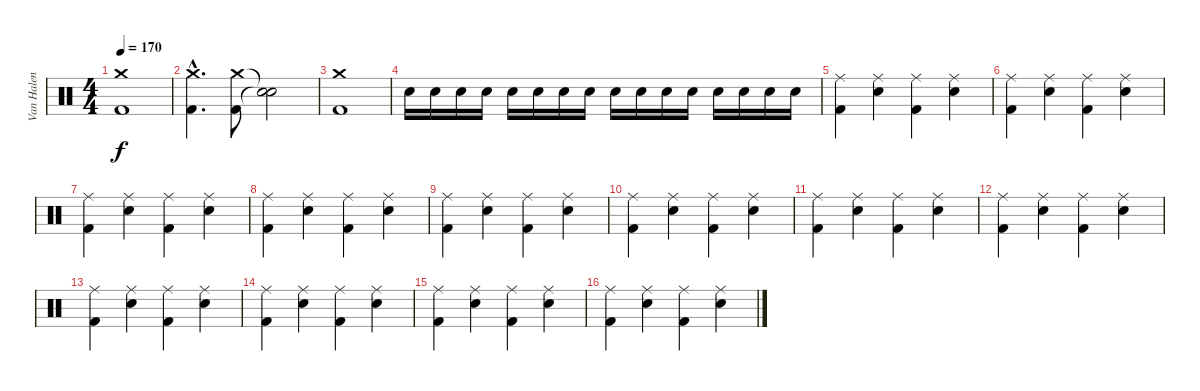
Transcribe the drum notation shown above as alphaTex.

\track ("Van Halen" "Van Halen") {instrument percussion}
\staff {score}
\articulation defaults
\ts (4 4)
\tempo 170
\clef neutral
\ks c
("Kick (hit) 2" "Crash medium (hit)").1{dy f} |
("Kick (hit) 2"{hac} "Crash medium (hit)"{hac}).4{d} ("Kick (hit) 2" "Crash medium (hit)").8 ("Snare (hit)"{t} "Snare (hit)"{t}).2 |
("Kick (hit) 2" "Crash medium (hit)").1 |
"Snare (hit) 2".16 "Snare (hit) 2".16 "Snare (hit) 2".16 "Snare (hit) 2".16 "Snare (hit) 2".16 "Snare (hit) 2".16 "Snare (hit) 2".16 "Snare (hit) 2".16 "Snare (hit) 2".16 "Snare (hit) 2".16 "Snare (hit) 2".16 "Snare (hit) 2".16 "Snare (hit) 2".16 "Snare (hit) 2".16 "Snare (hit) 2".16 "Snare (hit) 2".16 |
("Kick (hit) 2" "Ride (middle)").4 ("Snare (hit) 2" "Ride (middle)").4 ("Kick (hit) 2" "Ride (middle)").4 ("Snare (hit) 2" "Ride (middle)").4 |
("Kick (hit) 2" "Ride (middle)").4 ("Snare (hit) 2" "Ride (middle)").4 ("Kick (hit) 2" "Ride (middle)").4 ("Snare (hit) 2" "Ride (middle)").4 |
("Kick (hit) 2" "Ride (middle)").4 ("Snare (hit) 2" "Ride (middle)").4 ("Kick (hit) 2" "Ride (middle)").4 ("Snare (hit) 2" "Ride (middle)").4 |
("Kick (hit) 2" "Ride (middle)").4 ("Snare (hit) 2" "Ride (middle)").4 ("Kick (hit) 2" "Ride (middle)").4 ("Snare (hit) 2" "Ride (middle)").4 |
("Kick (hit) 2" "Ride (middle)").4 ("Snare (hit) 2" "Ride (middle)").4 ("Kick (hit) 2" "Ride (middle)").4 ("Snare (hit) 2" "Ride (middle)").4 |
("Kick (hit) 2" "Ride (middle)").4 ("Snare (hit) 2" "Ride (middle)").4 ("Kick (hit) 2" "Ride (middle)").4 ("Snare (hit) 2" "Ride (middle)").4 |
("Kick (hit) 2" "Ride (middle)").4 ("Snare (hit) 2" "Ride (middle)").4 ("Kick (hit) 2" "Ride (middle)").4 ("Snare (hit) 2" "Ride (middle)").4 |
("Kick (hit) 2" "Ride (middle)").4 ("Snare (hit) 2" "Ride (middle)").4 ("Kick (hit) 2" "Ride (middle)").4 ("Snare (hit) 2" "Ride (middle)").4 |
("Kick (hit) 2" "Ride (middle)").4 ("Snare (hit) 2" "Ride (middle)").4 ("Kick (hit) 2" "Ride (middle)").4 ("Snare (hit) 2" "Ride (middle)").4 |
("Kick (hit) 2" "Ride (middle)").4 ("Snare (hit) 2" "Ride (middle)").4 ("Kick (hit) 2" "Ride (middle)").4 ("Snare (hit) 2" "Ride (middle)").4 |
("Kick (hit) 2" "Ride (middle)").4 ("Snare (hit) 2" "Ride (middle)").4 ("Kick (hit) 2" "Ride (middle)").4 ("Snare (hit) 2" "Ride (middle)").4 |
("Kick (hit) 2" "Ride (middle)").4 ("Snare (hit) 2" "Ride (middle)").4 ("Kick (hit) 2" "Ride (middle)").4 ("Snare (hit) 2" "Ride (middle)").4
